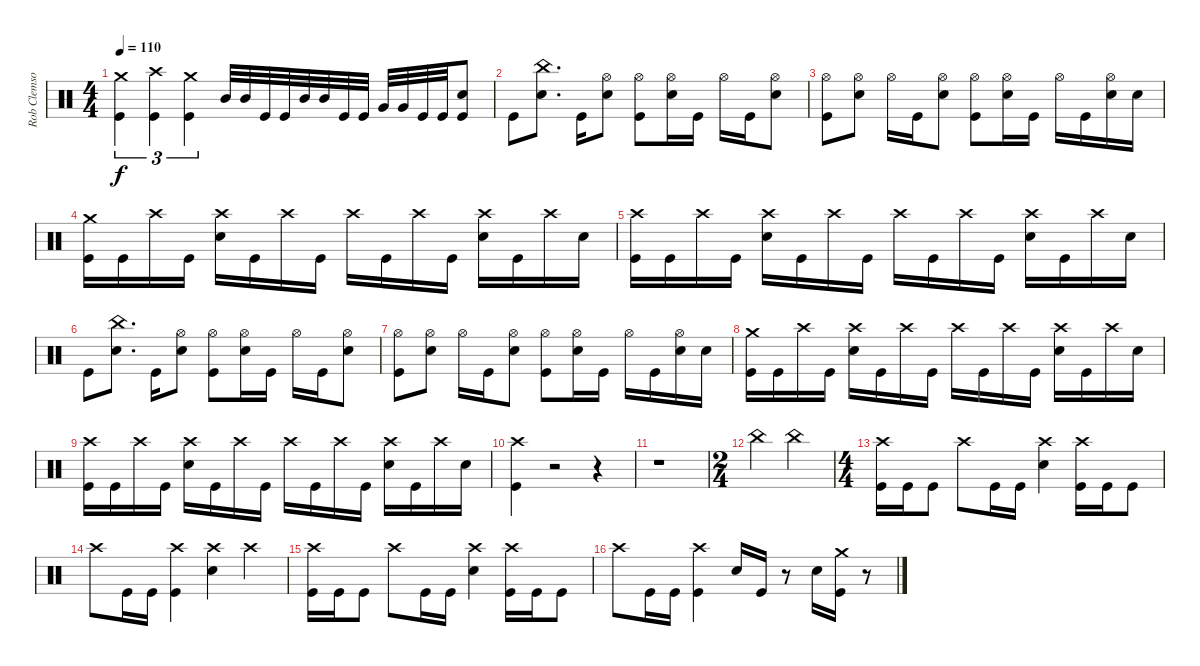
\track ("Rob Clemson" "Rob Clemso") {instrument percussion}
\staff {score}
\articulation defaults
\ts (4 4)
\tempo 110
\clef neutral
\ks c
("Crash medium (hit)" "Kick (hit)").4{tu (3 2) dy f} ("Crash high (hit)" "Kick (hit)").4{tu (3 2)} ("Crash medium (hit)" "Kick (hit)").4{tu (3 2)} "Mid Tom (hit)".32 "Mid Tom (hit)".32 "Kick (hit)".32 "Kick (hit)".32 "Mid Tom (hit)".32 "Mid Tom (hit)".32 "Kick (hit)".32 "Kick (hit)".32 "Very Low Tom (hit)".32 "Very Low Tom (hit)".32 "Kick (hit)".32 "Kick (hit)".32 ("Electric Snare (hit)" "Kick (hit)").8 |
"Kick (hit)".8 ("Electric Snare (hit)" "China (hit)").8{d} "Kick (hit)".16 ("Hi-Hat (open)" "Electric Snare (hit)").8 ("Hi-Hat (open)" "Kick (hit)").8 ("Hi-Hat (open)" "Electric Snare (hit)").16 "Kick (hit)".16 "Hi-Hat (open)".16 "Kick (hit)".16 ("Hi-Hat (open)" "Electric Snare (hit)").8 |
("Hi-Hat (open)" "Kick (hit)").8 ("Hi-Hat (open)" "Electric Snare (hit)").8 "Hi-Hat (open)".16 "Kick (hit)".16 ("Hi-Hat (open)" "Electric Snare (hit)").8 ("Hi-Hat (open)" "Kick (hit)").8 ("Hi-Hat (open)" "Electric Snare (hit)").16 "Kick (hit)".16 "Hi-Hat (open)".16 "Kick (hit)".16 ("Hi-Hat (open)" "Electric Snare (hit)").16 "Electric Snare (hit)".16 |
("Crash medium (hit)" "Kick (hit)").16 "Kick (hit)".16 "Crash high (hit)".16 "Kick (hit)".16 ("Crash high (hit)" "Electric Snare (hit)").16 "Kick (hit)".16 "Crash high (hit)".16 "Kick (hit)".16 "Crash high (hit)".16 "Kick (hit)".16 "Crash high (hit)".16 "Kick (hit)".16 ("Crash high (hit)" "Electric Snare (hit)").16 "Kick (hit)".16 "Crash high (hit)".16 "Electric Snare (hit)".16 |
("Crash high (hit)" "Kick (hit)").16 "Kick (hit)".16 "Crash high (hit)".16 "Kick (hit)".16 ("Crash high (hit)" "Electric Snare (hit)").16 "Kick (hit)".16 "Crash high (hit)".16 "Kick (hit)".16 "Crash high (hit)".16 "Kick (hit)".16 "Crash high (hit)".16 "Kick (hit)".16 ("Crash high (hit)" "Electric Snare (hit)").16 "Kick (hit)".16 "Crash high (hit)".16 "Electric Snare (hit)".16 |
"Kick (hit)".8 ("Electric Snare (hit)" "China (hit)").8{d} "Kick (hit)".16 ("Hi-Hat (open)" "Electric Snare (hit)").8 ("Hi-Hat (open)" "Kick (hit)").8 ("Hi-Hat (open)" "Electric Snare (hit)").16 "Kick (hit)".16 "Hi-Hat (open)".16 "Kick (hit)".16 ("Hi-Hat (open)" "Electric Snare (hit)").8 |
("Hi-Hat (open)" "Kick (hit)").8 ("Hi-Hat (open)" "Electric Snare (hit)").8 "Hi-Hat (open)".16 "Kick (hit)".16 ("Hi-Hat (open)" "Electric Snare (hit)").8 ("Hi-Hat (open)" "Kick (hit)").8 ("Hi-Hat (open)" "Electric Snare (hit)").16 "Kick (hit)".16 "Hi-Hat (open)".16 "Kick (hit)".16 ("Hi-Hat (open)" "Electric Snare (hit)").16 "Electric Snare (hit)".16 |
("Crash medium (hit)" "Kick (hit)").16 "Kick (hit)".16 "Crash high (hit)".16 "Kick (hit)".16 ("Crash high (hit)" "Electric Snare (hit)").16 "Kick (hit)".16 "Crash high (hit)".16 "Kick (hit)".16 "Crash high (hit)".16 "Kick (hit)".16 "Crash high (hit)".16 "Kick (hit)".16 ("Crash high (hit)" "Electric Snare (hit)").16 "Kick (hit)".16 "Crash high (hit)".16 "Electric Snare (hit)".16 |
("Crash high (hit)" "Kick (hit)").16 "Kick (hit)".16 "Crash high (hit)".16 "Kick (hit)".16 ("Crash high (hit)" "Electric Snare (hit)").16 "Kick (hit)".16 "Crash high (hit)".16 "Kick (hit)".16 "Crash high (hit)".16 "Kick (hit)".16 "Crash high (hit)".16 "Kick (hit)".16 ("Crash high (hit)" "Electric Snare (hit)").16 "Kick (hit)".16 "Crash high (hit)".16 "Electric Snare (hit)".16 |
("Kick (hit)" "Crash high (hit)").4 r.2 r.4 |
r.1 |
\ts (2 4)
"China (hit)".4 "China (hit)".4 |
\ts (4 4)
("Kick (hit)" "Crash high (hit)").16 "Kick (hit)".16 "Kick (hit)".8 "Crash high (hit)".8 "Kick (hit)".16 "Kick (hit)".16 ("Crash high (hit)" "Electric Snare (hit)").4 ("Kick (hit)" "Crash high (hit)").16 "Kick (hit)".16 "Kick (hit)".8 |
"Crash high (hit)".8 "Kick (hit)".16 "Kick (hit)".16 ("Kick (hit)" "Crash high (hit)").4 ("Crash high (hit)" "Electric Snare (hit)").4 "Crash high (hit)".4 |
("Kick (hit)" "Crash high (hit)").16 "Kick (hit)".16 "Kick (hit)".8 "Crash high (hit)".8 "Kick (hit)".16 "Kick (hit)".16 ("Crash high (hit)" "Electric Snare (hit)").4 ("Kick (hit)" "Crash high (hit)").16 "Kick (hit)".16 "Kick (hit)".8 |
"Crash high (hit)".8 "Kick (hit)".16 "Kick (hit)".16 ("Kick (hit)" "Crash high (hit)").4 "Electric Snare (hit)".16 "Kick (hit)".16 r.8 "Electric Snare (hit)".16 ("Kick (hit)" "Crash medium (hit)").16 r.8
